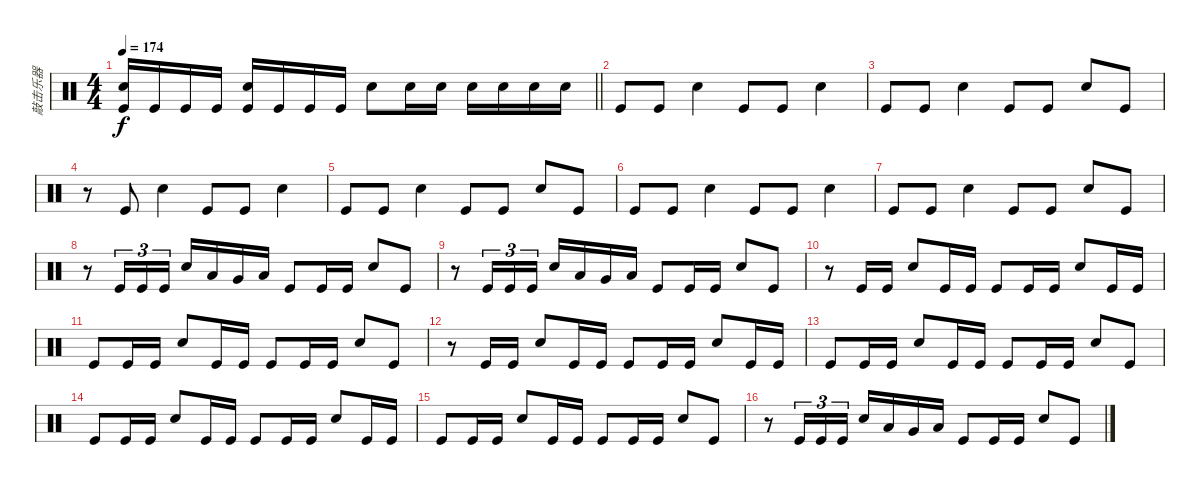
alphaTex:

\track ("敲击乐器" "敲击乐器") {instrument percussion}
\staff {score}
\articulation defaults
\ts (4 4)
\tempo 174
\clef neutral
\barLineRight lightlight
\ks c
("Kick (hit)" "Snare (hit) 2").16{dy f} "Kick (hit)".16 "Kick (hit)".16 "Kick (hit)".16 ("Kick (hit)" "Snare (hit) 2").16 "Kick (hit)".16 "Kick (hit)".16 "Kick (hit)".16 "Snare (hit) 2".8 "Snare (hit) 2".16 "Snare (hit) 2".16 "Snare (hit) 2".16 "Snare (hit) 2".16 "Snare (hit) 2".16 "Snare (hit) 2".16 |
"Kick (hit)".8 "Kick (hit)".8 "Snare (hit) 2".4 "Kick (hit)".8 "Kick (hit)".8 "Snare (hit) 2".4 |
"Kick (hit)".8 "Kick (hit)".8 "Snare (hit) 2".4 "Kick (hit)".8 "Kick (hit)".8 "Snare (hit) 2".8 "Kick (hit)".8 |
r.8 "Kick (hit)".8 "Snare (hit) 2".4 "Kick (hit)".8 "Kick (hit)".8 "Snare (hit) 2".4 |
"Kick (hit)".8 "Kick (hit)".8 "Snare (hit) 2".4 "Kick (hit)".8 "Kick (hit)".8 "Snare (hit) 2".8 "Kick (hit)".8 |
"Kick (hit)".8 "Kick (hit)".8 "Snare (hit) 2".4 "Kick (hit)".8 "Kick (hit)".8 "Snare (hit) 2".4 |
"Kick (hit)".8 "Kick (hit)".8 "Snare (hit) 2".4 "Kick (hit)".8 "Kick (hit)".8 "Snare (hit) 2".8 "Kick (hit)".8 |
r.8 "Kick (hit)".16{tu (3 2)} "Kick (hit)".16{tu (3 2)} "Kick (hit)".16{tu (3 2)} "Snare (hit) 2".16 "Low Tom (hit)".16 "Very Low Tom (hit)".16 "Low Floor Tom (hit)".16 "Kick (hit)".8 "Kick (hit)".16 "Kick (hit)".16 "Snare (hit) 2".8 "Kick (hit)".8 |
r.8 "Kick (hit)".16{tu (3 2)} "Kick (hit)".16{tu (3 2)} "Kick (hit)".16{tu (3 2)} "Snare (hit) 2".16 "Low Tom (hit)".16 "Very Low Tom (hit)".16 "Low Floor Tom (hit)".16 "Kick (hit)".8 "Kick (hit)".16 "Kick (hit)".16 "Snare (hit) 2".8 "Kick (hit)".8 |
r.8 "Kick (hit)".16 "Kick (hit)".16 "Snare (hit) 2".8 "Kick (hit)".16 "Kick (hit)".16 "Kick (hit)".8 "Kick (hit)".16 "Kick (hit)".16 "Snare (hit) 2".8 "Kick (hit)".16 "Kick (hit)".16 |
"Kick (hit)".8 "Kick (hit)".16 "Kick (hit)".16 "Snare (hit) 2".8 "Kick (hit)".16 "Kick (hit)".16 "Kick (hit)".8 "Kick (hit)".16 "Kick (hit)".16 "Snare (hit) 2".8 "Kick (hit)".8 |
r.8 "Kick (hit)".16 "Kick (hit)".16 "Snare (hit) 2".8 "Kick (hit)".16 "Kick (hit)".16 "Kick (hit)".8 "Kick (hit)".16 "Kick (hit)".16 "Snare (hit) 2".8 "Kick (hit)".16 "Kick (hit)".16 |
"Kick (hit)".8 "Kick (hit)".16 "Kick (hit)".16 "Snare (hit) 2".8 "Kick (hit)".16 "Kick (hit)".16 "Kick (hit)".8 "Kick (hit)".16 "Kick (hit)".16 "Snare (hit) 2".8 "Kick (hit)".8 |
"Kick (hit)".8 "Kick (hit)".16 "Kick (hit)".16 "Snare (hit) 2".8 "Kick (hit)".16 "Kick (hit)".16 "Kick (hit)".8 "Kick (hit)".16 "Kick (hit)".16 "Snare (hit) 2".8 "Kick (hit)".16 "Kick (hit)".16 |
"Kick (hit)".8 "Kick (hit)".16 "Kick (hit)".16 "Snare (hit) 2".8 "Kick (hit)".16 "Kick (hit)".16 "Kick (hit)".8 "Kick (hit)".16 "Kick (hit)".16 "Snare (hit) 2".8 "Kick (hit)".8 |
r.8 "Kick (hit)".16{tu (3 2)} "Kick (hit)".16{tu (3 2)} "Kick (hit)".16{tu (3 2)} "Snare (hit) 2".16 "Low Tom (hit)".16 "Very Low Tom (hit)".16 "Low Floor Tom (hit)".16 "Kick (hit)".8 "Kick (hit)".16 "Kick (hit)".16 "Snare (hit) 2".8 "Kick (hit)".8
